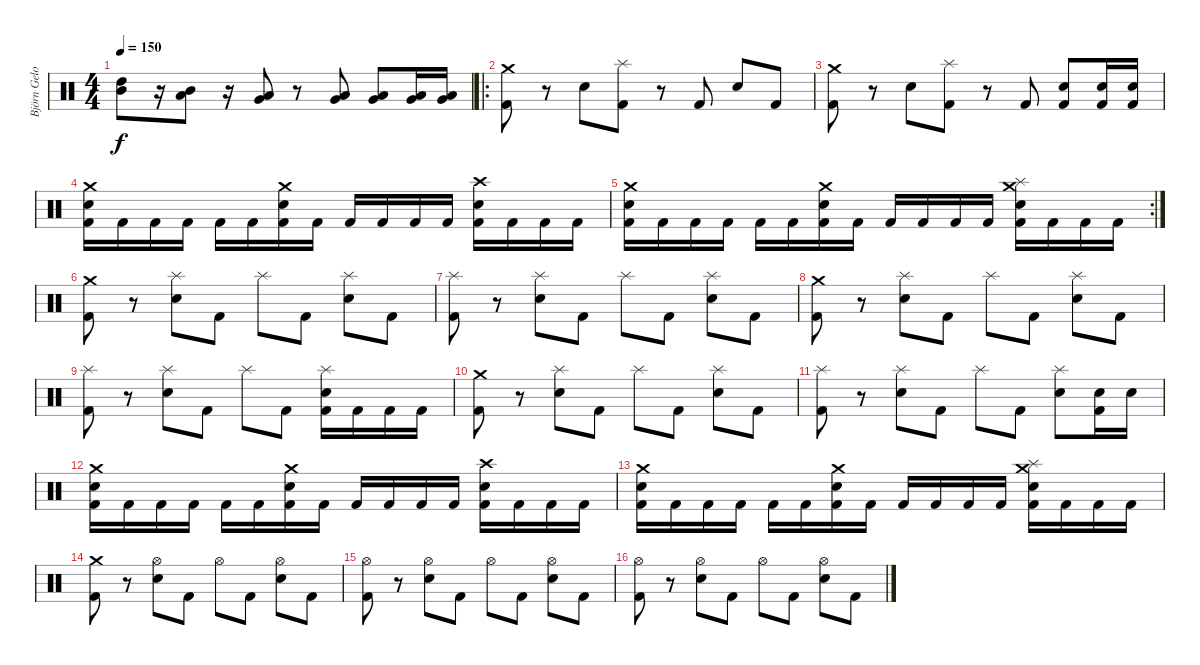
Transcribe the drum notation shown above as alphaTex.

\track ("Björn Gelotte" "Björn Gelo") {instrument percussion}
\staff {score}
\articulation defaults
\ts (4 4)
\tempo 150
\clef neutral
\ks c
("Mid Tom (hit)" "High Tom (hit)").8{dy f} r.16 ("Low Tom (hit)" "Mid Tom (hit)").8 r.16 ("Very Low Tom (hit)" "Low Tom (hit)").8 r.8 ("Very Low Tom (hit)" "Low Floor Tom (hit)").8 ("Very Low Tom (hit)" "Low Floor Tom (hit)").8 ("Very Low Tom (hit)" "Low Floor Tom (hit)").16 ("Very Low Tom (hit)" "Low Floor Tom (hit)").16 |
\ro
("Crash medium (hit)" "Kick (hit) 2").8 r.8 "Electric Snare (hit)".8 ("Splash (hit)" "Kick (hit) 2").8 r.8 "Kick (hit) 2".8 "Electric Snare (hit)".8 "Kick (hit) 2".8 |
("Crash medium (hit)" "Kick (hit) 2").8 r.8 "Electric Snare (hit)".8 ("Splash (hit)" "Kick (hit) 2").8 r.8 "Kick (hit) 2".8 ("Electric Snare (hit)" "Kick (hit) 2").8 ("Electric Snare (hit)" "Kick (hit) 2").16 ("Electric Snare (hit)" "Kick (hit) 2").16 |
("Crash medium (hit)" "Electric Snare (hit)" "Kick (hit) 2").16 "Kick (hit) 2".16 "Kick (hit) 2".16 "Kick (hit) 2".16 "Kick (hit) 2".16 "Kick (hit) 2".16 ("Crash medium (hit)" "Electric Snare (hit)" "Kick (hit) 2").16 "Kick (hit) 2".16 "Kick (hit) 2".16 "Kick (hit) 2".16 "Kick (hit) 2".16 "Kick (hit) 2".16 ("Crash high (hit)" "Electric Snare (hit)" "Kick (hit) 2").16 "Kick (hit) 2".16 "Kick (hit) 2".16 "Kick (hit) 2".16 |
\rc 2
("Crash medium (hit)" "Electric Snare (hit)" "Kick (hit) 2").16 "Kick (hit) 2".16 "Kick (hit) 2".16 "Kick (hit) 2".16 "Kick (hit) 2".16 "Kick (hit) 2".16 ("Crash medium (hit)" "Electric Snare (hit)" "Kick (hit) 2").16 "Kick (hit) 2".16 "Kick (hit) 2".16 "Kick (hit) 2".16 "Kick (hit) 2".16 "Kick (hit) 2".16 ("Crash medium (hit)" "Splash (hit)" "Electric Snare (hit)" "Kick (hit) 2").16 "Kick (hit) 2".16 "Kick (hit) 2".16 "Kick (hit) 2".16 |
("Crash medium (hit)" "Kick (hit) 2").8 r.8 ("Splash (hit)" "Electric Snare (hit)").8 "Kick (hit) 2".8 "Splash (hit)".8 "Kick (hit) 2".8 ("Splash (hit)" "Electric Snare (hit)").8 "Kick (hit) 2".8 |
("Splash (hit)" "Kick (hit) 2").8 r.8 ("Splash (hit)" "Electric Snare (hit)").8 "Kick (hit) 2".8 "Splash (hit)".8 "Kick (hit) 2".8 ("Splash (hit)" "Electric Snare (hit)").8 "Kick (hit) 2".8 |
("Crash medium (hit)" "Kick (hit) 2").8 r.8 ("Splash (hit)" "Electric Snare (hit)").8 "Kick (hit) 2".8 "Splash (hit)".8 "Kick (hit) 2".8 ("Splash (hit)" "Electric Snare (hit)").8 "Kick (hit) 2".8 |
("Splash (hit)" "Kick (hit) 2").8 r.8 ("Splash (hit)" "Electric Snare (hit)").8 "Kick (hit) 2".8 "Splash (hit)".8 "Kick (hit) 2".8 ("Splash (hit)" "Electric Snare (hit)" "Kick (hit) 2").16 "Kick (hit) 2".16 "Kick (hit) 2".16 "Kick (hit) 2".16 |
("Crash medium (hit)" "Kick (hit) 2").8 r.8 ("Splash (hit)" "Electric Snare (hit)").8 "Kick (hit) 2".8 "Splash (hit)".8 "Kick (hit) 2".8 ("Splash (hit)" "Electric Snare (hit)").8 "Kick (hit) 2".8 |
("Splash (hit)" "Kick (hit) 2").8 r.8 ("Splash (hit)" "Electric Snare (hit)").8 "Kick (hit) 2".8 "Splash (hit)".8 "Kick (hit) 2".8 ("Splash (hit)" "Electric Snare (hit)").8 ("Electric Snare (hit)" "Kick (hit) 2").16 "Electric Snare (hit)".16 |
("Crash medium (hit)" "Electric Snare (hit)" "Kick (hit) 2").16 "Kick (hit) 2".16 "Kick (hit) 2".16 "Kick (hit) 2".16 "Kick (hit) 2".16 "Kick (hit) 2".16 ("Crash medium (hit)" "Electric Snare (hit)" "Kick (hit) 2").16 "Kick (hit) 2".16 "Kick (hit) 2".16 "Kick (hit) 2".16 "Kick (hit) 2".16 "Kick (hit) 2".16 ("Crash high (hit)" "Electric Snare (hit)" "Kick (hit) 2").16 "Kick (hit) 2".16 "Kick (hit) 2".16 "Kick (hit) 2".16 |
("Crash medium (hit)" "Electric Snare (hit)" "Kick (hit) 2").16 "Kick (hit) 2".16 "Kick (hit) 2".16 "Kick (hit) 2".16 "Kick (hit) 2".16 "Kick (hit) 2".16 ("Crash medium (hit)" "Electric Snare (hit)" "Kick (hit) 2").16 "Kick (hit) 2".16 "Kick (hit) 2".16 "Kick (hit) 2".16 "Kick (hit) 2".16 "Kick (hit) 2".16 ("Crash medium (hit)" "Splash (hit)" "Electric Snare (hit)" "Kick (hit) 2").16 "Kick (hit) 2".16 "Kick (hit) 2".16 "Kick (hit) 2".16 |
("Crash medium (hit)" "Kick (hit) 2").8 r.8 ("Hi-Hat (open)" "Electric Snare (hit)").8 "Kick (hit) 2".8 "Hi-Hat (open)".8 "Kick (hit) 2".8 ("Hi-Hat (open)" "Electric Snare (hit)").8 "Kick (hit) 2".8 |
("Hi-Hat (open)" "Kick (hit) 2").8 r.8 ("Hi-Hat (open)" "Electric Snare (hit)").8 "Kick (hit) 2".8 "Hi-Hat (open)".8 "Kick (hit) 2".8 ("Hi-Hat (open)" "Electric Snare (hit)").8 "Kick (hit) 2".8 |
("Hi-Hat (open)" "Kick (hit) 2").8 r.8 ("Hi-Hat (open)" "Electric Snare (hit)").8 "Kick (hit) 2".8 "Hi-Hat (open)".8 "Kick (hit) 2".8 ("Hi-Hat (open)" "Electric Snare (hit)").8 "Kick (hit) 2".8
